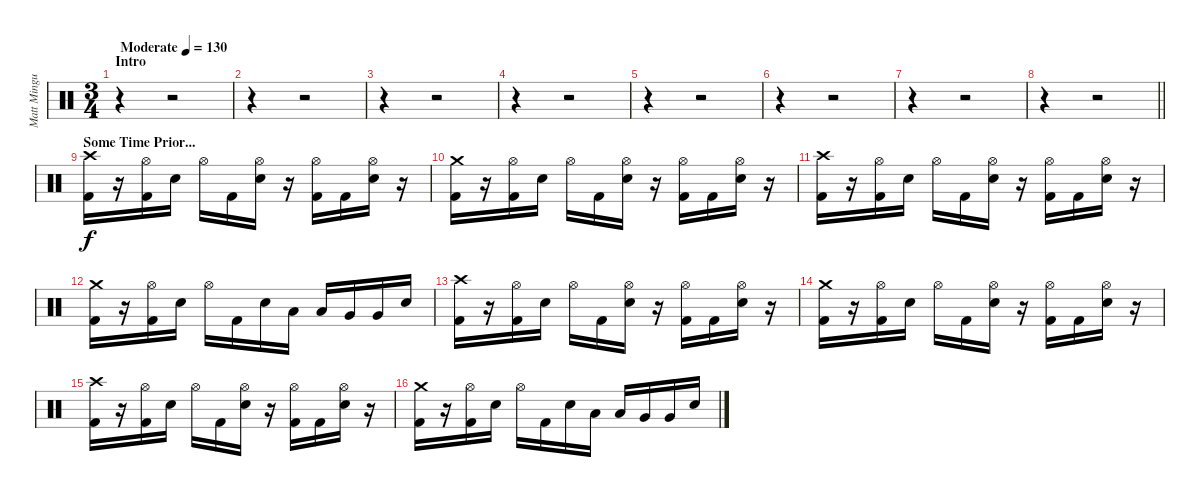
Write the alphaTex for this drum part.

\track ("Matt Mingus" "Matt Mingu") {instrument percussion}
\staff {score}
\articulation defaults
\ts (3 4)
\section ("" "Intro")
\tempo (130 "Moderate")
\clef neutral
\ks c
r.4{dy f} r.2 |
r.4 r.2 |
r.4 r.2 |
r.4 r.2 |
r.4 r.2 |
r.4 r.2 |
r.4 r.2 |
\barLineRight lightlight
r.4 r.2 |
\section ("" "Some Time Prior...")
("Crash high (hit)" "Kick (hit) 2").16 r.16 ("Hi-Hat (open)" "Kick (hit) 2").16 "Electric Snare (hit)".16 "Hi-Hat (open)".16 "Kick (hit) 2".16 ("Hi-Hat (open)" "Electric Snare (hit)").16 r.16 ("Hi-Hat (open)" "Kick (hit) 2").16 "Kick (hit) 2".16 ("Hi-Hat (open)" "Electric Snare (hit)").16 r.16 |
("Crash medium (hit)" "Kick (hit) 2").16 r.16 ("Hi-Hat (open)" "Kick (hit) 2").16 "Electric Snare (hit)".16 "Hi-Hat (open)".16 "Kick (hit) 2".16 ("Hi-Hat (open)" "Electric Snare (hit)").16 r.16 ("Hi-Hat (open)" "Kick (hit) 2").16 "Kick (hit) 2".16 ("Hi-Hat (open)" "Electric Snare (hit)").16 r.16 |
("Crash high (hit)" "Kick (hit) 2").16 r.16 ("Hi-Hat (open)" "Kick (hit) 2").16 "Electric Snare (hit)".16 "Hi-Hat (open)".16 "Kick (hit) 2".16 ("Hi-Hat (open)" "Electric Snare (hit)").16 r.16 ("Hi-Hat (open)" "Kick (hit) 2").16 "Kick (hit) 2".16 ("Hi-Hat (open)" "Electric Snare (hit)").16 r.16 |
("Crash medium (hit)" "Kick (hit) 2").16 r.16 ("Hi-Hat (open)" "Kick (hit) 2").16 "Electric Snare (hit)".16 "Hi-Hat (open)".16 "Kick (hit) 2".16 "Electric Snare (hit)".16 "Low Tom (hit)".16 "Low Tom (hit)".16 "Very Low Tom (hit)".16 "Very Low Tom (hit)".16 "Electric Snare (hit)".16 |
("Crash high (hit)" "Kick (hit) 2").16 r.16 ("Hi-Hat (open)" "Kick (hit) 2").16 "Electric Snare (hit)".16 "Hi-Hat (open)".16 "Kick (hit) 2".16 ("Hi-Hat (open)" "Electric Snare (hit)").16 r.16 ("Hi-Hat (open)" "Kick (hit) 2").16 "Kick (hit) 2".16 ("Hi-Hat (open)" "Electric Snare (hit)").16 r.16 |
("Crash medium (hit)" "Kick (hit) 2").16 r.16 ("Hi-Hat (open)" "Kick (hit) 2").16 "Electric Snare (hit)".16 "Hi-Hat (open)".16 "Kick (hit) 2".16 ("Hi-Hat (open)" "Electric Snare (hit)").16 r.16 ("Hi-Hat (open)" "Kick (hit) 2").16 "Kick (hit) 2".16 ("Hi-Hat (open)" "Electric Snare (hit)").16 r.16 |
("Crash high (hit)" "Kick (hit) 2").16 r.16 ("Hi-Hat (open)" "Kick (hit) 2").16 "Electric Snare (hit)".16 "Hi-Hat (open)".16 "Kick (hit) 2".16 ("Hi-Hat (open)" "Electric Snare (hit)").16 r.16 ("Hi-Hat (open)" "Kick (hit) 2").16 "Kick (hit) 2".16 ("Hi-Hat (open)" "Electric Snare (hit)").16 r.16 |
("Crash medium (hit)" "Kick (hit) 2").16 r.16 ("Hi-Hat (open)" "Kick (hit) 2").16 "Electric Snare (hit)".16 "Hi-Hat (open)".16 "Kick (hit) 2".16 "Electric Snare (hit)".16 "Low Tom (hit)".16 "Low Tom (hit)".16 "Very Low Tom (hit)".16 "Very Low Tom (hit)".16 "Electric Snare (hit)".16
